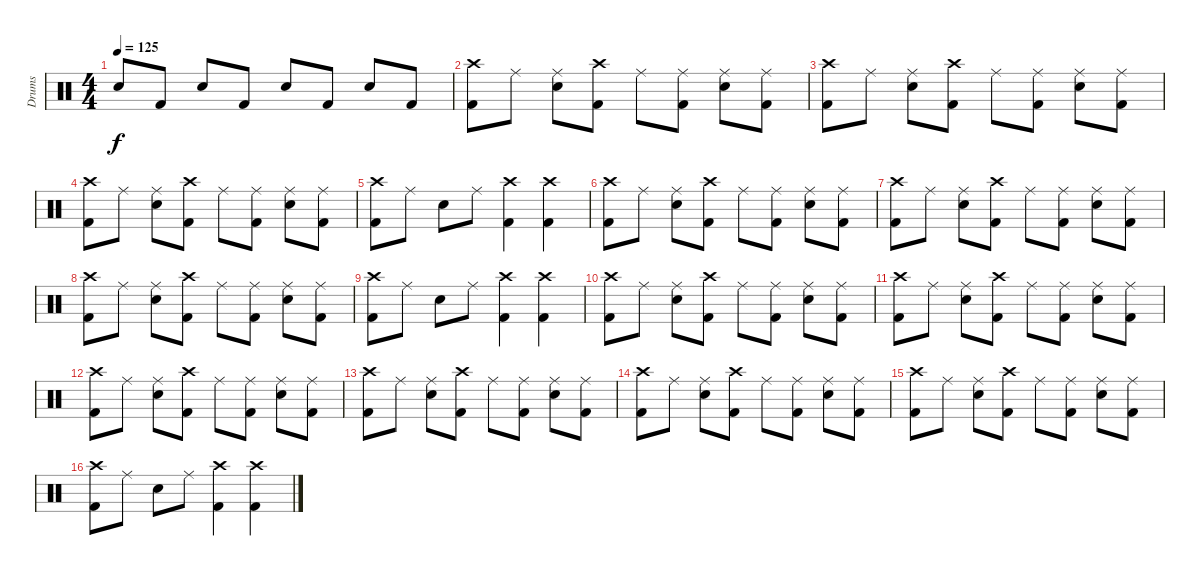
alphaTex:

\track ("Drums" "Drums") {instrument percussion}
\staff {score}
\articulation defaults
\ts (4 4)
\tempo 125
\clef neutral
\ks c "Snare (hit) 2".8{dy f} "Kick (hit) 2".8 "Snare (hit) 2".8 "Kick (hit) 2".8 "Snare (hit) 2".8 "Kick (hit) 2".8 "Snare (hit) 2".8 "Kick (hit) 2".8
|
("Crash high (hit)" "Kick (hit) 2").8 "Ride (middle)".8 ("Ride (middle)" "Snare (hit) 2").8 ("Crash high (hit)" "Kick (hit) 2").8 "Ride (middle)".8 ("Ride (middle)" "Kick (hit) 2").8 ("Ride (middle)" "Snare (hit) 2").8 ("Ride (middle)" "Kick (hit) 2").8 |
("Crash high (hit)" "Kick (hit) 2").8 "Ride (middle)".8 ("Ride (middle)" "Snare (hit) 2").8 ("Crash high (hit)" "Kick (hit) 2").8 "Ride (middle)".8 ("Ride (middle)" "Kick (hit) 2").8 ("Ride (middle)" "Snare (hit) 2").8 ("Ride (middle)" "Kick (hit) 2").8 |
("Crash high (hit)" "Kick (hit) 2").8 "Ride (middle)".8 ("Ride (middle)" "Snare (hit) 2").8 ("Crash high (hit)" "Kick (hit) 2").8 "Ride (middle)".8 ("Ride (middle)" "Kick (hit) 2").8 ("Ride (middle)" "Snare (hit) 2").8 ("Ride (middle)" "Kick (hit) 2").8 |
("Crash high (hit)" "Kick (hit) 2").8 "Ride (middle)".8 "Snare (hit) 2".8 "Ride (middle)".8 ("Crash high (hit)" "Kick (hit) 2").4 ("Crash high (hit)" "Kick (hit) 2").4 |
("Crash high (hit)" "Kick (hit) 2").8 "Ride (middle)".8 ("Ride (middle)" "Snare (hit) 2").8 ("Crash high (hit)" "Kick (hit) 2").8 "Ride (middle)".8 ("Ride (middle)" "Kick (hit) 2").8 ("Ride (middle)" "Snare (hit) 2").8 ("Ride (middle)" "Kick (hit) 2").8 |
("Crash high (hit)" "Kick (hit) 2").8 "Ride (middle)".8 ("Ride (middle)" "Snare (hit) 2").8 ("Crash high (hit)" "Kick (hit) 2").8 "Ride (middle)".8 ("Ride (middle)" "Kick (hit) 2").8 ("Ride (middle)" "Snare (hit) 2").8 ("Ride (middle)" "Kick (hit) 2").8 |
("Crash high (hit)" "Kick (hit) 2").8 "Ride (middle)".8 ("Ride (middle)" "Snare (hit) 2").8 ("Crash high (hit)" "Kick (hit) 2").8 "Ride (middle)".8 ("Ride (middle)" "Kick (hit) 2").8 ("Ride (middle)" "Snare (hit) 2").8 ("Ride (middle)" "Kick (hit) 2").8 |
("Crash high (hit)" "Kick (hit) 2").8 "Ride (middle)".8 "Snare (hit) 2".8 "Ride (middle)".8 ("Crash high (hit)" "Kick (hit) 2").4 ("Crash high (hit)" "Kick (hit) 2").4 |
("Crash high (hit)" "Kick (hit) 2").8 "Ride (middle)".8 ("Ride (middle)" "Snare (hit) 2").8 ("Crash high (hit)" "Kick (hit) 2").8 "Ride (middle)".8 ("Ride (middle)" "Kick (hit) 2").8 ("Ride (middle)" "Snare (hit) 2").8 ("Ride (middle)" "Kick (hit) 2").8 |
("Crash high (hit)" "Kick (hit) 2").8 "Ride (middle)".8 ("Ride (middle)" "Snare (hit) 2").8 ("Crash high (hit)" "Kick (hit) 2").8 "Ride (middle)".8 ("Ride (middle)" "Kick (hit) 2").8 ("Ride (middle)" "Snare (hit) 2").8 ("Ride (middle)" "Kick (hit) 2").8 |
("Crash high (hit)" "Kick (hit) 2").8 "Ride (middle)".8 ("Ride (middle)" "Snare (hit) 2").8 ("Crash high (hit)" "Kick (hit) 2").8 "Ride (middle)".8 ("Ride (middle)" "Kick (hit) 2").8 ("Ride (middle)" "Snare (hit) 2").8 ("Ride (middle)" "Kick (hit) 2").8 |
("Crash high (hit)" "Kick (hit) 2").8 "Ride (middle)".8 ("Ride (middle)" "Snare (hit) 2").8 ("Crash high (hit)" "Kick (hit) 2").8 "Ride (middle)".8 ("Ride (middle)" "Kick (hit) 2").8 ("Ride (middle)" "Snare (hit) 2").8 ("Ride (middle)" "Kick (hit) 2").8 |
("Crash high (hit)" "Kick (hit) 2").8 "Ride (middle)".8 ("Ride (middle)" "Snare (hit) 2").8 ("Crash high (hit)" "Kick (hit) 2").8 "Ride (middle)".8 ("Ride (middle)" "Kick (hit) 2").8 ("Ride (middle)" "Snare (hit) 2").8 ("Ride (middle)" "Kick (hit) 2").8 |
("Crash high (hit)" "Kick (hit) 2").8 "Ride (middle)".8 ("Ride (middle)" "Snare (hit) 2").8 ("Crash high (hit)" "Kick (hit) 2").8 "Ride (middle)".8 ("Ride (middle)" "Kick (hit) 2").8 ("Ride (middle)" "Snare (hit) 2").8 ("Ride (middle)" "Kick (hit) 2").8 |
("Crash high (hit)" "Kick (hit) 2").8 "Ride (middle)".8 "Snare (hit) 2".8 "Ride (middle)".8 ("Crash high (hit)" "Kick (hit) 2").4 ("Crash high (hit)" "Kick (hit) 2").4
